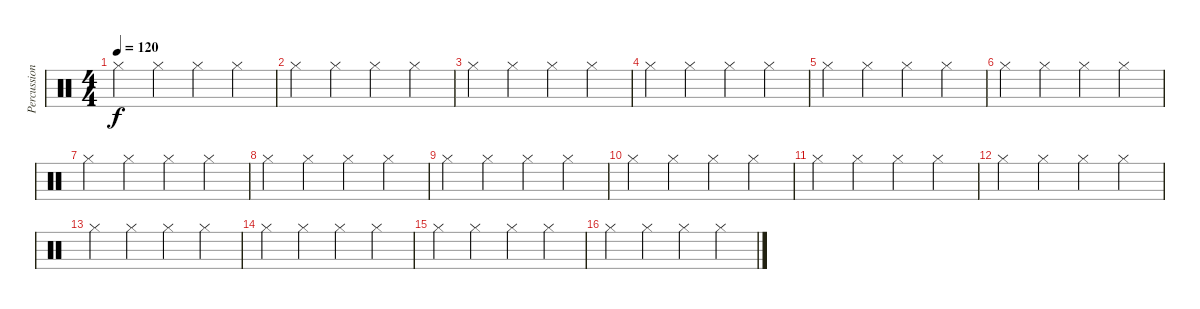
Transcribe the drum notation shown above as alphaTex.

\track ("Percussions" "Percussion") {instrument percussion}
\staff {score}
\articulation defaults
\ts (4 4)
\tempo 120
\clef neutral
\ks c "Hi-Hat (closed)".4{dy f} "Hi-Hat (closed)".4 "Hi-Hat (closed)".4 "Hi-Hat (closed)".4
|
"Hi-Hat (closed)".4 "Hi-Hat (closed)".4 "Hi-Hat (closed)".4 "Hi-Hat (closed)".4 |
"Hi-Hat (closed)".4 "Hi-Hat (closed)".4 "Hi-Hat (closed)".4 "Hi-Hat (closed)".4 |
"Hi-Hat (closed)".4 "Hi-Hat (closed)".4 "Hi-Hat (closed)".4 "Hi-Hat (closed)".4 |
"Hi-Hat (closed)".4 "Hi-Hat (closed)".4 "Hi-Hat (closed)".4 "Hi-Hat (closed)".4 |
"Hi-Hat (closed)".4 "Hi-Hat (closed)".4 "Hi-Hat (closed)".4 "Hi-Hat (closed)".4 |
"Hi-Hat (closed)".4 "Hi-Hat (closed)".4 "Hi-Hat (closed)".4 "Hi-Hat (closed)".4 |
"Hi-Hat (closed)".4 "Hi-Hat (closed)".4 "Hi-Hat (closed)".4 "Hi-Hat (closed)".4 |
"Hi-Hat (closed)".4 "Hi-Hat (closed)".4 "Hi-Hat (closed)".4 "Hi-Hat (closed)".4 |
"Hi-Hat (closed)".4 "Hi-Hat (closed)".4 "Hi-Hat (closed)".4 "Hi-Hat (closed)".4 |
"Hi-Hat (closed)".4 "Hi-Hat (closed)".4 "Hi-Hat (closed)".4 "Hi-Hat (closed)".4 |
"Hi-Hat (closed)".4 "Hi-Hat (closed)".4 "Hi-Hat (closed)".4 "Hi-Hat (closed)".4 |
"Hi-Hat (closed)".4 "Hi-Hat (closed)".4 "Hi-Hat (closed)".4 "Hi-Hat (closed)".4 |
"Hi-Hat (closed)".4 "Hi-Hat (closed)".4 "Hi-Hat (closed)".4 "Hi-Hat (closed)".4 |
"Hi-Hat (closed)".4 "Hi-Hat (closed)".4 "Hi-Hat (closed)".4 "Hi-Hat (closed)".4 |
"Hi-Hat (closed)".4 "Hi-Hat (closed)".4 "Hi-Hat (closed)".4 "Hi-Hat (closed)".4
